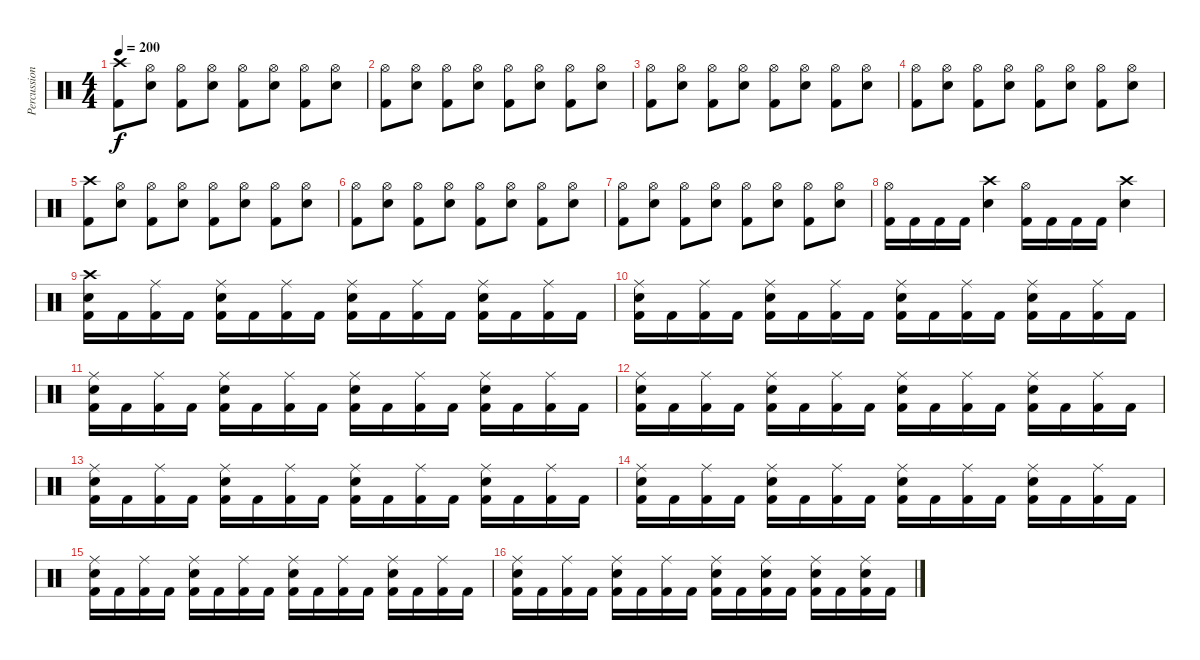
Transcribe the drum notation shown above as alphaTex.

\track ("Percussions" "Percussion") {instrument percussion}
\staff {score}
\articulation defaults
\ts (4 4)
\tempo 200
\clef neutral
\ks c
("Crash high (hit)" "Kick (hit) 2").8{dy f} ("Hi-Hat (open)" "Electric Snare (hit)").8 ("Hi-Hat (open)" "Kick (hit) 2").8 ("Hi-Hat (open)" "Electric Snare (hit)").8 ("Hi-Hat (open)" "Kick (hit) 2").8 ("Hi-Hat (open)" "Electric Snare (hit)").8 ("Hi-Hat (open)" "Kick (hit) 2").8 ("Hi-Hat (open)" "Electric Snare (hit)").8 |
("Hi-Hat (open)" "Kick (hit) 2").8 ("Hi-Hat (open)" "Electric Snare (hit)").8 ("Hi-Hat (open)" "Kick (hit) 2").8 ("Hi-Hat (open)" "Electric Snare (hit)").8 ("Hi-Hat (open)" "Kick (hit) 2").8 ("Hi-Hat (open)" "Electric Snare (hit)").8 ("Hi-Hat (open)" "Kick (hit) 2").8 ("Hi-Hat (open)" "Electric Snare (hit)").8 |
("Hi-Hat (open)" "Kick (hit) 2").8 ("Hi-Hat (open)" "Electric Snare (hit)").8 ("Hi-Hat (open)" "Kick (hit) 2").8 ("Hi-Hat (open)" "Electric Snare (hit)").8 ("Hi-Hat (open)" "Kick (hit) 2").8 ("Hi-Hat (open)" "Electric Snare (hit)").8 ("Hi-Hat (open)" "Kick (hit) 2").8 ("Hi-Hat (open)" "Electric Snare (hit)").8 |
("Hi-Hat (open)" "Kick (hit) 2").8 ("Hi-Hat (open)" "Electric Snare (hit)").8 ("Hi-Hat (open)" "Kick (hit) 2").8 ("Hi-Hat (open)" "Electric Snare (hit)").8 ("Hi-Hat (open)" "Kick (hit) 2").8 ("Hi-Hat (open)" "Electric Snare (hit)").8 ("Hi-Hat (open)" "Kick (hit) 2").8 ("Hi-Hat (open)" "Electric Snare (hit)").8 |
("Crash high (hit)" "Kick (hit) 2").8 ("Hi-Hat (open)" "Electric Snare (hit)").8 ("Hi-Hat (open)" "Kick (hit) 2").8 ("Hi-Hat (open)" "Electric Snare (hit)").8 ("Hi-Hat (open)" "Kick (hit) 2").8 ("Hi-Hat (open)" "Electric Snare (hit)").8 ("Hi-Hat (open)" "Kick (hit) 2").8 ("Hi-Hat (open)" "Electric Snare (hit)").8 |
("Hi-Hat (open)" "Kick (hit) 2").8 ("Hi-Hat (open)" "Electric Snare (hit)").8 ("Hi-Hat (open)" "Kick (hit) 2").8 ("Hi-Hat (open)" "Electric Snare (hit)").8 ("Hi-Hat (open)" "Kick (hit) 2").8 ("Hi-Hat (open)" "Electric Snare (hit)").8 ("Hi-Hat (open)" "Kick (hit) 2").8 ("Hi-Hat (open)" "Electric Snare (hit)").8 |
("Hi-Hat (open)" "Kick (hit) 2").8 ("Hi-Hat (open)" "Electric Snare (hit)").8 ("Hi-Hat (open)" "Kick (hit) 2").8 ("Hi-Hat (open)" "Electric Snare (hit)").8 ("Hi-Hat (open)" "Kick (hit) 2").8 ("Hi-Hat (open)" "Electric Snare (hit)").8 ("Hi-Hat (open)" "Kick (hit) 2").8 ("Hi-Hat (open)" "Electric Snare (hit)").8 |
("Hi-Hat (open)" "Kick (hit) 2").16 "Kick (hit) 2".16 "Kick (hit) 2".16 "Kick (hit) 2".16 ("Crash high (hit)" "Electric Snare (hit)").4 ("Hi-Hat (open)" "Kick (hit) 2").16 "Kick (hit) 2".16 "Kick (hit) 2".16 "Kick (hit) 2".16 ("Crash high (hit)" "Electric Snare (hit)").4 |
("Crash high (hit)" "Electric Snare (hit)" "Kick (hit) 2").16 "Kick (hit) 2".16 ("Ride (middle)" "Kick (hit) 2").16 "Kick (hit) 2".16 ("Ride (middle)" "Electric Snare (hit)" "Kick (hit) 2").16 "Kick (hit) 2".16 ("Ride (middle)" "Kick (hit) 2").16 "Kick (hit) 2".16 ("Ride (middle)" "Electric Snare (hit)" "Kick (hit) 2").16 "Kick (hit) 2".16 ("Ride (middle)" "Kick (hit) 2").16 "Kick (hit) 2".16 ("Ride (middle)" "Electric Snare (hit)" "Kick (hit) 2").16 "Kick (hit) 2".16 ("Ride (middle)" "Kick (hit) 2").16 "Kick (hit) 2".16 |
("Ride (middle)" "Electric Snare (hit)" "Kick (hit) 2").16 "Kick (hit) 2".16 ("Ride (middle)" "Kick (hit) 2").16 "Kick (hit) 2".16 ("Ride (middle)" "Electric Snare (hit)" "Kick (hit) 2").16 "Kick (hit) 2".16 ("Ride (middle)" "Kick (hit) 2").16 "Kick (hit) 2".16 ("Ride (middle)" "Electric Snare (hit)" "Kick (hit) 2").16 "Kick (hit) 2".16 ("Ride (middle)" "Kick (hit) 2").16 "Kick (hit) 2".16 ("Ride (middle)" "Electric Snare (hit)" "Kick (hit) 2").16 "Kick (hit) 2".16 ("Ride (middle)" "Kick (hit) 2").16 "Kick (hit) 2".16 |
("Ride (middle)" "Electric Snare (hit)" "Kick (hit) 2").16 "Kick (hit) 2".16 ("Ride (middle)" "Kick (hit) 2").16 "Kick (hit) 2".16 ("Ride (middle)" "Electric Snare (hit)" "Kick (hit) 2").16 "Kick (hit) 2".16 ("Ride (middle)" "Kick (hit) 2").16 "Kick (hit) 2".16 ("Ride (middle)" "Electric Snare (hit)" "Kick (hit) 2").16 "Kick (hit) 2".16 ("Ride (middle)" "Kick (hit) 2").16 "Kick (hit) 2".16 ("Ride (middle)" "Electric Snare (hit)" "Kick (hit) 2").16 "Kick (hit) 2".16 ("Ride (middle)" "Kick (hit) 2").16 "Kick (hit) 2".16 |
("Ride (middle)" "Electric Snare (hit)" "Kick (hit) 2").16 "Kick (hit) 2".16 ("Ride (middle)" "Kick (hit) 2").16 "Kick (hit) 2".16 ("Ride (middle)" "Electric Snare (hit)" "Kick (hit) 2").16 "Kick (hit) 2".16 ("Ride (middle)" "Kick (hit) 2").16 "Kick (hit) 2".16 ("Ride (middle)" "Electric Snare (hit)" "Kick (hit) 2").16 "Kick (hit) 2".16 ("Ride (middle)" "Kick (hit) 2").16 "Kick (hit) 2".16 ("Ride (middle)" "Electric Snare (hit)" "Kick (hit) 2").16 "Kick (hit) 2".16 ("Ride (middle)" "Kick (hit) 2").16 "Kick (hit) 2".16 |
("Ride (middle)" "Electric Snare (hit)" "Kick (hit) 2").16 "Kick (hit) 2".16 ("Ride (middle)" "Kick (hit) 2").16 "Kick (hit) 2".16 ("Ride (middle)" "Electric Snare (hit)" "Kick (hit) 2").16 "Kick (hit) 2".16 ("Ride (middle)" "Kick (hit) 2").16 "Kick (hit) 2".16 ("Ride (middle)" "Electric Snare (hit)" "Kick (hit) 2").16 "Kick (hit) 2".16 ("Ride (middle)" "Kick (hit) 2").16 "Kick (hit) 2".16 ("Ride (middle)" "Electric Snare (hit)" "Kick (hit) 2").16 "Kick (hit) 2".16 ("Ride (middle)" "Kick (hit) 2").16 "Kick (hit) 2".16 |
("Ride (middle)" "Electric Snare (hit)" "Kick (hit) 2").16 "Kick (hit) 2".16 ("Ride (middle)" "Kick (hit) 2").16 "Kick (hit) 2".16 ("Ride (middle)" "Electric Snare (hit)" "Kick (hit) 2").16 "Kick (hit) 2".16 ("Ride (middle)" "Kick (hit) 2").16 "Kick (hit) 2".16 ("Ride (middle)" "Electric Snare (hit)" "Kick (hit) 2").16 "Kick (hit) 2".16 ("Ride (middle)" "Kick (hit) 2").16 "Kick (hit) 2".16 ("Ride (middle)" "Electric Snare (hit)" "Kick (hit) 2").16 "Kick (hit) 2".16 ("Ride (middle)" "Kick (hit) 2").16 "Kick (hit) 2".16 |
("Ride (middle)" "Electric Snare (hit)" "Kick (hit) 2").16 "Kick (hit) 2".16 ("Ride (middle)" "Kick (hit) 2").16 "Kick (hit) 2".16 ("Ride (middle)" "Electric Snare (hit)" "Kick (hit) 2").16 "Kick (hit) 2".16 ("Ride (middle)" "Kick (hit) 2").16 "Kick (hit) 2".16 ("Ride (middle)" "Electric Snare (hit)" "Kick (hit) 2").16 "Kick (hit) 2".16 ("Ride (middle)" "Kick (hit) 2").16 "Kick (hit) 2".16 ("Ride (middle)" "Electric Snare (hit)" "Kick (hit) 2").16 "Kick (hit) 2".16 ("Ride (middle)" "Kick (hit) 2").16 "Kick (hit) 2".16 |
("Ride (middle)" "Electric Snare (hit)" "Kick (hit) 2").16 "Kick (hit) 2".16 ("Ride (middle)" "Kick (hit) 2").16 "Kick (hit) 2".16 ("Ride (middle)" "Electric Snare (hit)" "Kick (hit) 2").16 "Kick (hit) 2".16 ("Ride (middle)" "Kick (hit) 2").16 "Kick (hit) 2".16 ("Ride (middle)" "Electric Snare (hit)" "Kick (hit) 2").16 "Kick (hit) 2".16 ("Ride (middle)" "Electric Snare (hit)" "Kick (hit) 2").16 "Kick (hit) 2".16 ("Ride (middle)" "Electric Snare (hit)" "Kick (hit) 2").16 "Kick (hit) 2".16 ("Ride (middle)" "Electric Snare (hit)" "Kick (hit) 2").16 "Kick (hit) 2".16
